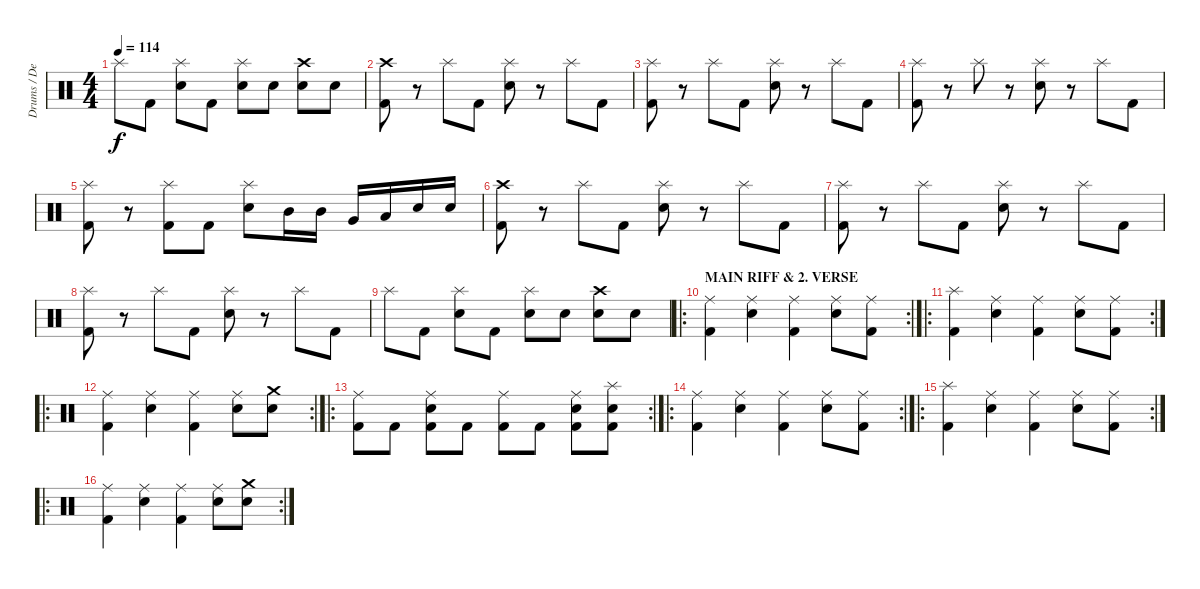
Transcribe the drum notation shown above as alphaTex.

\track ("Drums / Dennis" "Drums / De") {instrument percussion}
\staff {score}
\articulation defaults
\ts (4 4)
\tempo 114
\clef neutral
\ks c "Splash (hit)".8{dy f} "Kick (hit) 2".8
("Electric Snare (hit)" "Splash (hit)").8 "Kick (hit) 2".8 ("Electric Snare (hit)" "Splash (hit)").8 "Electric Snare (hit)".8 ("Electric Snare (hit)" "Crash high (hit)").8 "Electric Snare (hit)".8 |
("Kick (hit) 2" "Crash high (hit)").8 r.8 "Splash (hit)".8 "Kick (hit) 2".8 ("Electric Snare (hit)" "Splash (hit)").8 r.8 "Splash (hit)".8 "Kick (hit) 2".8 |
("Kick (hit) 2" "Splash (hit)").8 r.8 "Splash (hit)".8 "Kick (hit) 2".8 ("Electric Snare (hit)" "Splash (hit)").8 r.8 "Splash (hit)".8 "Kick (hit) 2".8 |
("Kick (hit) 2" "Splash (hit)").8 r.8 "Splash (hit)".8 r.8 ("Electric Snare (hit)" "Splash (hit)").8 r.8 "Splash (hit)".8 "Kick (hit) 2".8 |
("Kick (hit) 2" "Splash (hit)").8 r.8 ("Kick (hit) 2" "Splash (hit)").8 "Kick (hit) 2".8 ("Electric Snare (hit)" "Splash (hit)").8 "Mid Tom (hit)".16 "Mid Tom (hit)".16 "Very Low Tom (hit)".16 "Low Floor Tom (hit)".16 "Electric Snare (hit)".16 "Electric Snare (hit)".16 |
("Kick (hit) 2" "Crash high (hit)").8 r.8 "Splash (hit)".8 "Kick (hit) 2".8 ("Electric Snare (hit)" "Splash (hit)").8 r.8 "Splash (hit)".8 "Kick (hit) 2".8 |
("Kick (hit) 2" "Splash (hit)").8 r.8 "Splash (hit)".8 "Kick (hit) 2".8 ("Electric Snare (hit)" "Splash (hit)").8 r.8 "Splash (hit)".8 "Kick (hit) 2".8 |
("Kick (hit) 2" "Splash (hit)").8 r.8 "Splash (hit)".8 "Kick (hit) 2".8 ("Electric Snare (hit)" "Splash (hit)").8 r.8 "Splash (hit)".8 "Kick (hit) 2".8 |
"Splash (hit)".8 "Kick (hit) 2".8 ("Electric Snare (hit)" "Splash (hit)").8 "Kick (hit) 2".8 ("Electric Snare (hit)" "Splash (hit)").8 "Electric Snare (hit)".8 ("Electric Snare (hit)" "Crash high (hit)").8 "Electric Snare (hit)".8 |
\ro
\rc 2
\section ("" "MAIN RIFF & 2. VERSE")
("Ride (middle)" "Kick (hit) 2").4 ("Ride (middle)" "Electric Snare (hit)").4 ("Ride (middle)" "Kick (hit) 2").4 ("Ride (middle)" "Electric Snare (hit)").8 ("Ride (middle)" "Kick (hit) 2").8 |
\ro
\rc 2
("Splash (hit)" "Kick (hit) 2").4 ("Ride (middle)" "Electric Snare (hit)").4 ("Ride (middle)" "Kick (hit) 2").4 ("Ride (middle)" "Electric Snare (hit)").8 ("Ride (middle)" "Kick (hit) 2").8 |
\ro
\rc 2
("Ride (middle)" "Kick (hit) 2").4 ("Ride (middle)" "Electric Snare (hit)").4 ("Ride (middle)" "Kick (hit) 2").4 ("Ride (middle)" "Electric Snare (hit)").8 ("Crash medium (hit)" "Electric Snare (hit)").8 |
\ro
\rc 2
("Ride (middle)" "Kick (hit) 2").8 "Kick (hit) 2".8 ("Ride (middle)" "Electric Snare (hit)" "Kick (hit) 2").8 "Kick (hit) 2".8 ("Ride (middle)" "Kick (hit) 2").8 "Kick (hit) 2".8 ("Ride (middle)" "Electric Snare (hit)" "Kick (hit) 2").8 ("Splash (hit)" "Electric Snare (hit)" "Kick (hit) 2").8 |
\ro
\rc 2
("Ride (middle)" "Kick (hit) 2").4 ("Ride (middle)" "Electric Snare (hit)").4 ("Ride (middle)" "Kick (hit) 2").4 ("Ride (middle)" "Electric Snare (hit)").8 ("Ride (middle)" "Kick (hit) 2").8 |
\ro
\rc 2
("Splash (hit)" "Kick (hit) 2").4 ("Ride (middle)" "Electric Snare (hit)").4 ("Ride (middle)" "Kick (hit) 2").4 ("Ride (middle)" "Electric Snare (hit)").8 ("Ride (middle)" "Kick (hit) 2").8 |
\ro
\rc 2
("Ride (middle)" "Kick (hit) 2").4 ("Ride (middle)" "Electric Snare (hit)").4 ("Ride (middle)" "Kick (hit) 2").4 ("Ride (middle)" "Electric Snare (hit)").8 ("Crash medium (hit)" "Electric Snare (hit)").8
